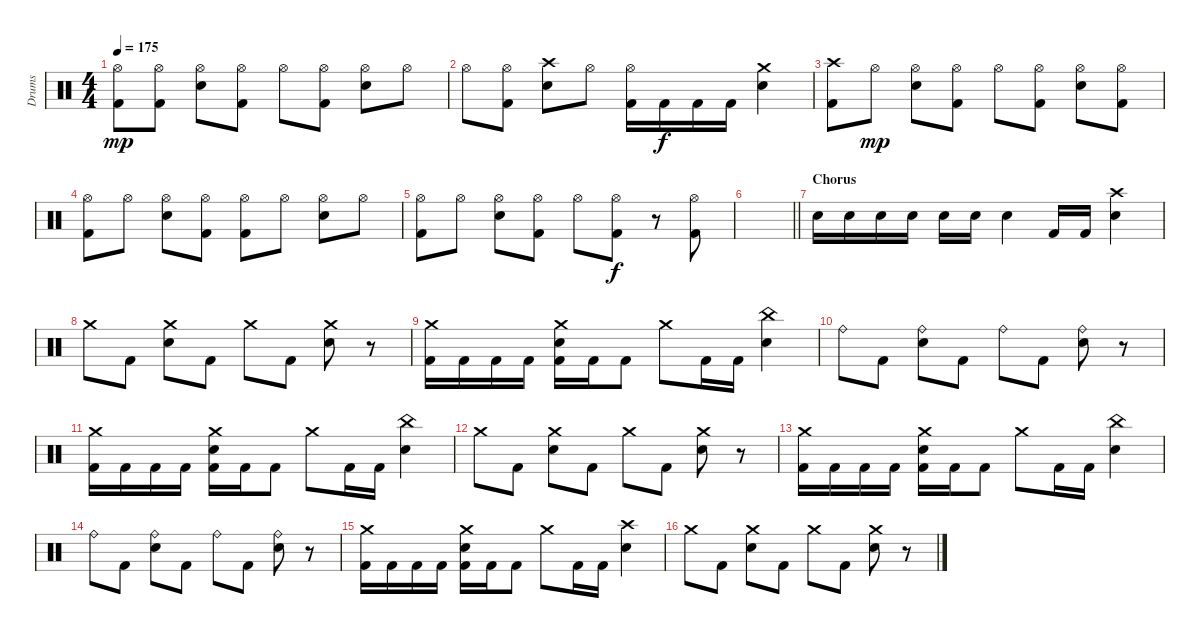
\track ("Drums" "Drums") {instrument percussion}
\staff {score}
\articulation defaults
\ts (4 4)
\tempo 175
\clef neutral
\ks c
("Hi-Hat (open)" "Kick (hit) 2").8{dy mp} ("Hi-Hat (open)" "Kick (hit) 2").8 ("Hi-Hat (open)" "Electric Snare (hit)").8 ("Hi-Hat (open)" "Kick (hit) 2").8 "Hi-Hat (open)".8 ("Hi-Hat (open)" "Kick (hit) 2").8 ("Hi-Hat (open)" "Electric Snare (hit)").8 "Hi-Hat (open)".8 |
"Hi-Hat (open)".8 ("Hi-Hat (open)" "Kick (hit) 2").8 ("Crash high (hit)" "Electric Snare (hit)").8 "Hi-Hat (open)".8 ("Hi-Hat (open)" "Kick (hit) 2").16 "Kick (hit) 2".16{dy f} "Kick (hit) 2".16 "Kick (hit) 2".16 ("Crash medium (hit)" "Electric Snare (hit)").4 |
("Crash high (hit)" "Kick (hit) 2").8 "Hi-Hat (open)".8{dy mp} ("Hi-Hat (open)" "Electric Snare (hit)").8 ("Hi-Hat (open)" "Kick (hit) 2").8 "Hi-Hat (open)".8 ("Hi-Hat (open)" "Kick (hit) 2").8 ("Hi-Hat (open)" "Electric Snare (hit)").8 ("Hi-Hat (open)" "Kick (hit) 2").8 |
("Hi-Hat (open)" "Kick (hit) 2").8 "Hi-Hat (open)".8 ("Hi-Hat (open)" "Electric Snare (hit)").8 ("Hi-Hat (open)" "Kick (hit) 2").8 ("Hi-Hat (open)" "Kick (hit) 2").8 "Hi-Hat (open)".8 ("Hi-Hat (open)" "Electric Snare (hit)").8 "Hi-Hat (open)".8 |
("Hi-Hat (open)" "Kick (hit) 2").8 "Hi-Hat (open)".8 ("Hi-Hat (open)" "Electric Snare (hit)").8 ("Hi-Hat (open)" "Kick (hit) 2").8 "Hi-Hat (open)".8 ("Hi-Hat (open)" "Kick (hit) 2").8{dy f} r.8 ("Hi-Hat (open)" "Kick (hit) 2").8 |
\barLineRight lightlight
|
\section ("" "Chorus")
"Electric Snare (hit)".16 "Electric Snare (hit)".16 "Electric Snare (hit)".16 "Electric Snare (hit)".16 "Electric Snare (hit)".16 "Electric Snare (hit)".16 "Electric Snare (hit)".4 "Kick (hit) 2".16 "Kick (hit) 2".16 ("Crash high (hit)" "Electric Snare (hit)").4 |
"Crash medium (hit)".8 "Kick (hit) 2".8 ("Crash medium (hit)" "Electric Snare (hit)").8 "Kick (hit) 2".8 "Crash medium (hit)".8 "Kick (hit) 2".8 ("Crash medium (hit)" "Electric Snare (hit)").8 r.8 |
("Crash medium (hit)" "Kick (hit) 2").16 "Kick (hit) 2".16 "Kick (hit) 2".16 "Kick (hit) 2".16 ("Crash medium (hit)" "Electric Snare (hit)" "Kick (hit) 2").16 "Kick (hit) 2".16 "Kick (hit) 2".8 "Crash medium (hit)".8 "Kick (hit) 2".16 "Kick (hit) 2".16 ("China (hit)" "Electric Snare (hit)").4 |
"Ride (bell)".8 "Kick (hit) 2".8 ("Ride (bell)" "Electric Snare (hit)").8 "Kick (hit) 2".8 "Ride (bell)".8 "Kick (hit) 2".8 ("Ride (bell)" "Electric Snare (hit)").8 r.8 |
("Crash medium (hit)" "Kick (hit) 2").16 "Kick (hit) 2".16 "Kick (hit) 2".16 "Kick (hit) 2".16 ("Crash medium (hit)" "Electric Snare (hit)" "Kick (hit) 2").16 "Kick (hit) 2".16 "Kick (hit) 2".8 "Crash medium (hit)".8 "Kick (hit) 2".16 "Kick (hit) 2".16 ("China (hit)" "Electric Snare (hit)").4 |
"Crash medium (hit)".8 "Kick (hit) 2".8 ("Crash medium (hit)" "Electric Snare (hit)").8 "Kick (hit) 2".8 "Crash medium (hit)".8 "Kick (hit) 2".8 ("Crash medium (hit)" "Electric Snare (hit)").8 r.8 |
("Crash medium (hit)" "Kick (hit) 2").16 "Kick (hit) 2".16 "Kick (hit) 2".16 "Kick (hit) 2".16 ("Crash medium (hit)" "Electric Snare (hit)" "Kick (hit) 2").16 "Kick (hit) 2".16 "Kick (hit) 2".8 "Crash medium (hit)".8 "Kick (hit) 2".16 "Kick (hit) 2".16 ("China (hit)" "Electric Snare (hit)").4 |
"Ride (bell)".8 "Kick (hit) 2".8 ("Ride (bell)" "Electric Snare (hit)").8 "Kick (hit) 2".8 "Ride (bell)".8 "Kick (hit) 2".8 ("Ride (bell)" "Electric Snare (hit)").8 r.8 |
("Crash medium (hit)" "Kick (hit) 2").16 "Kick (hit) 2".16 "Kick (hit) 2".16 "Kick (hit) 2".16 ("Crash medium (hit)" "Electric Snare (hit)" "Kick (hit) 2").16 "Kick (hit) 2".16 "Kick (hit) 2".8 "Crash medium (hit)".8 "Kick (hit) 2".16 "Kick (hit) 2".16 ("Crash high (hit)" "Electric Snare (hit)").4 |
"Crash medium (hit)".8 "Kick (hit) 2".8 ("Crash medium (hit)" "Electric Snare (hit)").8 "Kick (hit) 2".8 "Crash medium (hit)".8 "Kick (hit) 2".8 ("Crash medium (hit)" "Electric Snare (hit)").8 r.8
